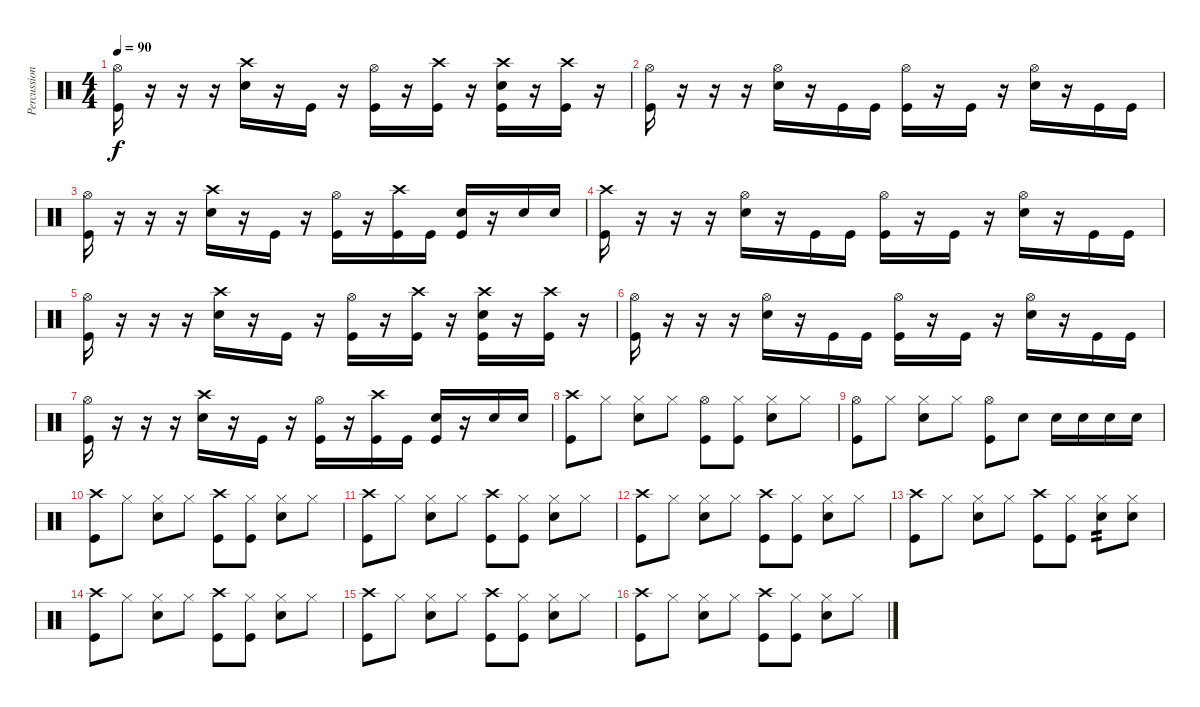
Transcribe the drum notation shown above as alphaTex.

\track ("Percussion" "Percussion") {instrument percussion}
\staff {score}
\articulation defaults
\ts (4 4)
\tempo 90
\clef neutral
\ks c
("Hi-Hat (open)" "Kick (hit)").16{dy f} r.16 r.16 r.16 ("Crash high (hit)" "Electric Snare (hit)").16 r.16 "Kick (hit)".16 r.16 ("Hi-Hat (open)" "Kick (hit)").16 r.16 ("Crash high (hit)" "Kick (hit)").16 r.16 ("Crash high (hit)" "Electric Snare (hit)" "Kick (hit)").16 r.16 ("Crash high (hit)" "Kick (hit)").16 r.16 |
("Hi-Hat (open)" "Kick (hit)").16 r.16 r.16 r.16 ("Hi-Hat (open)" "Electric Snare (hit)").16 r.16 "Kick (hit)".16 "Kick (hit)".16 ("Hi-Hat (open)" "Kick (hit)").16 r.16 "Kick (hit)".16 r.16 ("Hi-Hat (open)" "Electric Snare (hit)").16 r.16 "Kick (hit)".16 "Kick (hit)".16 |
("Hi-Hat (open)" "Kick (hit)").16 r.16 r.16 r.16 ("Crash high (hit)" "Electric Snare (hit)").16 r.16 "Kick (hit)".16 r.16 ("Hi-Hat (open)" "Kick (hit)").16 r.16 ("Crash high (hit)" "Kick (hit)").16 "Kick (hit)".16 ("Electric Snare (hit)" "Kick (hit)").16 r.16 "Electric Snare (hit)".16 "Electric Snare (hit)".16 |
("Crash high (hit)" "Kick (hit)").16 r.16 r.16 r.16 ("Hi-Hat (open)" "Electric Snare (hit)").16 r.16 "Kick (hit)".16 "Kick (hit)".16 ("Hi-Hat (open)" "Kick (hit)").16 r.16 "Kick (hit)".16 r.16 ("Hi-Hat (open)" "Electric Snare (hit)").16 r.16 "Kick (hit)".16 "Kick (hit)".16 |
("Hi-Hat (open)" "Kick (hit)").16 r.16 r.16 r.16 ("Crash high (hit)" "Electric Snare (hit)").16 r.16 "Kick (hit)".16 r.16 ("Hi-Hat (open)" "Kick (hit)").16 r.16 ("Crash high (hit)" "Kick (hit)").16 r.16 ("Crash high (hit)" "Electric Snare (hit)" "Kick (hit)").16 r.16 ("Crash high (hit)" "Kick (hit)").16 r.16 |
("Hi-Hat (open)" "Kick (hit)").16 r.16 r.16 r.16 ("Hi-Hat (open)" "Electric Snare (hit)").16 r.16 "Kick (hit)".16 "Kick (hit)".16 ("Hi-Hat (open)" "Kick (hit)").16 r.16 "Kick (hit)".16 r.16 ("Hi-Hat (open)" "Electric Snare (hit)").16 r.16 "Kick (hit)".16 "Kick (hit)".16 |
("Hi-Hat (open)" "Kick (hit)").16 r.16 r.16 r.16 ("Crash high (hit)" "Electric Snare (hit)").16 r.16 "Kick (hit)".16 r.16 ("Hi-Hat (open)" "Kick (hit)").16 r.16 ("Crash high (hit)" "Kick (hit)").16 "Kick (hit)".16 ("Electric Snare (hit)" "Kick (hit)").16 r.16 "Electric Snare (hit)".16 "Electric Snare (hit)".16 |
("Crash high (hit)" "Kick (hit)").8 "Hi-Hat (closed)".8 ("Hi-Hat (closed)" "Electric Snare (hit)").8 "Hi-Hat (closed)".8 ("Hi-Hat (open)" "Kick (hit)").8 ("Hi-Hat (closed)" "Kick (hit)").8 ("Hi-Hat (closed)" "Electric Snare (hit)").8 "Hi-Hat (closed)".8 |
("Hi-Hat (open)" "Kick (hit)").8 "Hi-Hat (closed)".8 ("Hi-Hat (closed)" "Electric Snare (hit)").8 "Hi-Hat (closed)".8 ("Hi-Hat (open)" "Kick (hit)").8 "Electric Snare (hit)".8 "Electric Snare (hit)".16 "Electric Snare (hit)".16 "Electric Snare (hit)".16 "Electric Snare (hit)".16 |
("Crash high (hit)" "Kick (hit)").8 "Hi-Hat (closed)".8 ("Hi-Hat (closed)" "Electric Snare (hit)").8 "Hi-Hat (closed)".8 ("Crash high (hit)" "Kick (hit)").8 ("Hi-Hat (closed)" "Kick (hit)").8 ("Hi-Hat (closed)" "Electric Snare (hit)").8 "Hi-Hat (closed)".8 |
("Crash high (hit)" "Kick (hit)").8 "Hi-Hat (closed)".8 ("Hi-Hat (closed)" "Electric Snare (hit)").8 "Hi-Hat (closed)".8 ("Crash high (hit)" "Kick (hit)").8 ("Hi-Hat (closed)" "Kick (hit)").8 ("Hi-Hat (closed)" "Electric Snare (hit)").8 "Hi-Hat (closed)".8 |
("Crash high (hit)" "Kick (hit)").8 "Hi-Hat (closed)".8 ("Hi-Hat (closed)" "Electric Snare (hit)").8 "Hi-Hat (closed)".8 ("Crash high (hit)" "Kick (hit)").8 ("Hi-Hat (closed)" "Kick (hit)").8 ("Hi-Hat (closed)" "Electric Snare (hit)").8 "Hi-Hat (closed)".8 |
("Crash high (hit)" "Kick (hit)").8 "Hi-Hat (closed)".8 ("Hi-Hat (closed)" "Electric Snare (hit)").8 "Hi-Hat (closed)".8 ("Crash high (hit)" "Kick (hit)").8 ("Hi-Hat (closed)" "Kick (hit)").8 ("Hi-Hat (closed)" "Electric Snare (hit)").8{tp 2} ("Hi-Hat (closed)" "Electric Snare (hit)").8 |
("Crash high (hit)" "Kick (hit)").8 "Hi-Hat (closed)".8 ("Hi-Hat (closed)" "Electric Snare (hit)").8 "Hi-Hat (closed)".8 ("Crash high (hit)" "Kick (hit)").8 ("Hi-Hat (closed)" "Kick (hit)").8 ("Hi-Hat (closed)" "Electric Snare (hit)").8 "Hi-Hat (closed)".8 |
("Crash high (hit)" "Kick (hit)").8 "Hi-Hat (closed)".8 ("Hi-Hat (closed)" "Electric Snare (hit)").8 "Hi-Hat (closed)".8 ("Crash high (hit)" "Kick (hit)").8 ("Hi-Hat (closed)" "Kick (hit)").8 ("Hi-Hat (closed)" "Electric Snare (hit)").8 "Hi-Hat (closed)".8 |
("Crash high (hit)" "Kick (hit)").8 "Hi-Hat (closed)".8 ("Hi-Hat (closed)" "Electric Snare (hit)").8 "Hi-Hat (closed)".8 ("Crash high (hit)" "Kick (hit)").8 ("Hi-Hat (closed)" "Kick (hit)").8 ("Hi-Hat (closed)" "Electric Snare (hit)").8 "Hi-Hat (closed)".8
